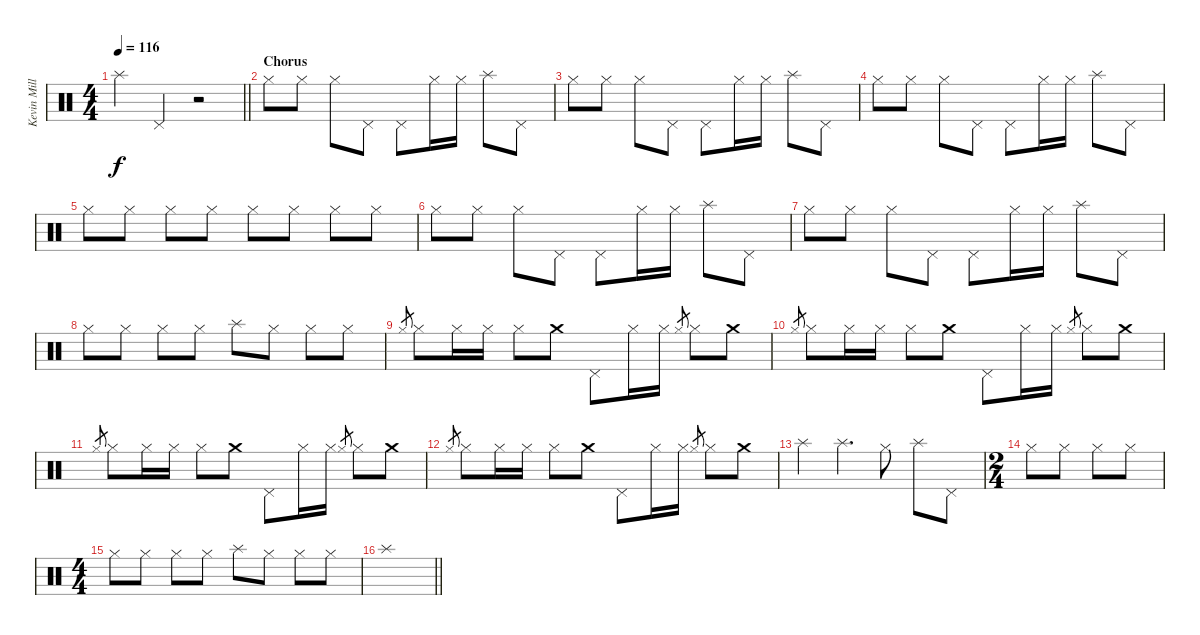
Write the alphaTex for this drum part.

\track ("Kevin Miller (Drums)" "Kevin Mill") {instrument percussion}
\staff {score}
\articulation defaults
\ts (4 4)
\tempo 116
\clef neutral
\barLineRight lightlight
\ks c "Splash (hit)".4{dy f} "Pedal Hi-Hat (hit)".4
r.2 |
\section ("" "Chorus")
"Hi-Hat (closed)".8 "Hi-Hat (closed)".8 "Hi-Hat (closed)".8 "Pedal Hi-Hat (hit)".8 "Pedal Hi-Hat (hit)".8 "Hi-Hat (closed)".16 "Hi-Hat (closed)".16 "Splash (hit)".8 "Pedal Hi-Hat (hit)".8 |
"Hi-Hat (closed)".8 "Hi-Hat (closed)".8 "Hi-Hat (closed)".8 "Pedal Hi-Hat (hit)".8 "Pedal Hi-Hat (hit)".8 "Hi-Hat (closed)".16 "Hi-Hat (closed)".16 "Splash (hit)".8 "Pedal Hi-Hat (hit)".8 |
"Hi-Hat (closed)".8 "Hi-Hat (closed)".8 "Hi-Hat (closed)".8 "Pedal Hi-Hat (hit)".8 "Pedal Hi-Hat (hit)".8 "Hi-Hat (closed)".16 "Hi-Hat (closed)".16 "Splash (hit)".8 "Pedal Hi-Hat (hit)".8 |
"Hi-Hat (closed)".8 "Hi-Hat (closed)".8 "Hi-Hat (closed)".8 "Hi-Hat (closed)".8 "Hi-Hat (closed)".8 "Hi-Hat (closed)".8 "Hi-Hat (closed)".8 "Hi-Hat (closed)".8 |
"Hi-Hat (closed)".8 "Hi-Hat (closed)".8 "Hi-Hat (closed)".8 "Pedal Hi-Hat (hit)".8 "Pedal Hi-Hat (hit)".8 "Hi-Hat (closed)".16 "Hi-Hat (closed)".16 "Splash (hit)".8 "Pedal Hi-Hat (hit)".8 |
"Hi-Hat (closed)".8 "Hi-Hat (closed)".8 "Hi-Hat (closed)".8 "Pedal Hi-Hat (hit)".8 "Pedal Hi-Hat (hit)".8 "Hi-Hat (closed)".16 "Hi-Hat (closed)".16 "Splash (hit)".8 "Pedal Hi-Hat (hit)".8 |
"Hi-Hat (closed)".8 "Hi-Hat (closed)".8 "Hi-Hat (closed)".8 "Hi-Hat (closed)".8 "Splash (hit)".8 "Hi-Hat (closed)".8 "Hi-Hat (closed)".8 "Hi-Hat (closed)".8 |
"Hi-Hat (closed)".8{gr} "Hi-Hat (closed)".8 "Hi-Hat (closed)".16 "Hi-Hat (closed)".16 "Hi-Hat (closed)".8 "Crash medium (hit)".8 "Pedal Hi-Hat (hit)".8 "Hi-Hat (closed)".16 "Hi-Hat (closed)".16 "Hi-Hat (closed)".8{gr} "Hi-Hat (closed)".8 "Crash medium (hit)".8 |
"Hi-Hat (closed)".8{gr} "Hi-Hat (closed)".8 "Hi-Hat (closed)".16 "Hi-Hat (closed)".16 "Hi-Hat (closed)".8 "Crash medium (hit)".8 "Pedal Hi-Hat (hit)".8 "Hi-Hat (closed)".16 "Hi-Hat (closed)".16 "Hi-Hat (closed)".8{gr} "Hi-Hat (closed)".8 "Crash medium (hit)".8 |
"Hi-Hat (closed)".8{gr} "Hi-Hat (closed)".8 "Hi-Hat (closed)".16 "Hi-Hat (closed)".16 "Hi-Hat (closed)".8 "Crash medium (hit)".8 "Pedal Hi-Hat (hit)".8 "Hi-Hat (closed)".16 "Hi-Hat (closed)".16 "Hi-Hat (closed)".8{gr} "Hi-Hat (closed)".8 "Crash medium (hit)".8 |
"Hi-Hat (closed)".8{gr} "Hi-Hat (closed)".8 "Hi-Hat (closed)".16 "Hi-Hat (closed)".16 "Hi-Hat (closed)".8 "Crash medium (hit)".8 "Pedal Hi-Hat (hit)".8 "Hi-Hat (closed)".16 "Hi-Hat (closed)".16 "Hi-Hat (closed)".8{gr} "Hi-Hat (closed)".8 "Crash medium (hit)".8 |
"Splash (hit)".4 "Splash (hit)".4{d} "Hi-Hat (closed)".8 "Splash (hit)".8 "Pedal Hi-Hat (hit)".8 |
\ts (2 4)
"Hi-Hat (closed)".8 "Hi-Hat (closed)".8 "Hi-Hat (closed)".8 "Hi-Hat (closed)".8 |
\ts (4 4)
"Hi-Hat (closed)".8 "Hi-Hat (closed)".8 "Hi-Hat (closed)".8 "Hi-Hat (closed)".8 "Splash (hit)".8 "Hi-Hat (closed)".8 "Hi-Hat (closed)".8 "Hi-Hat (closed)".8 |
\barLineRight lightlight "Splash (hit)".1
